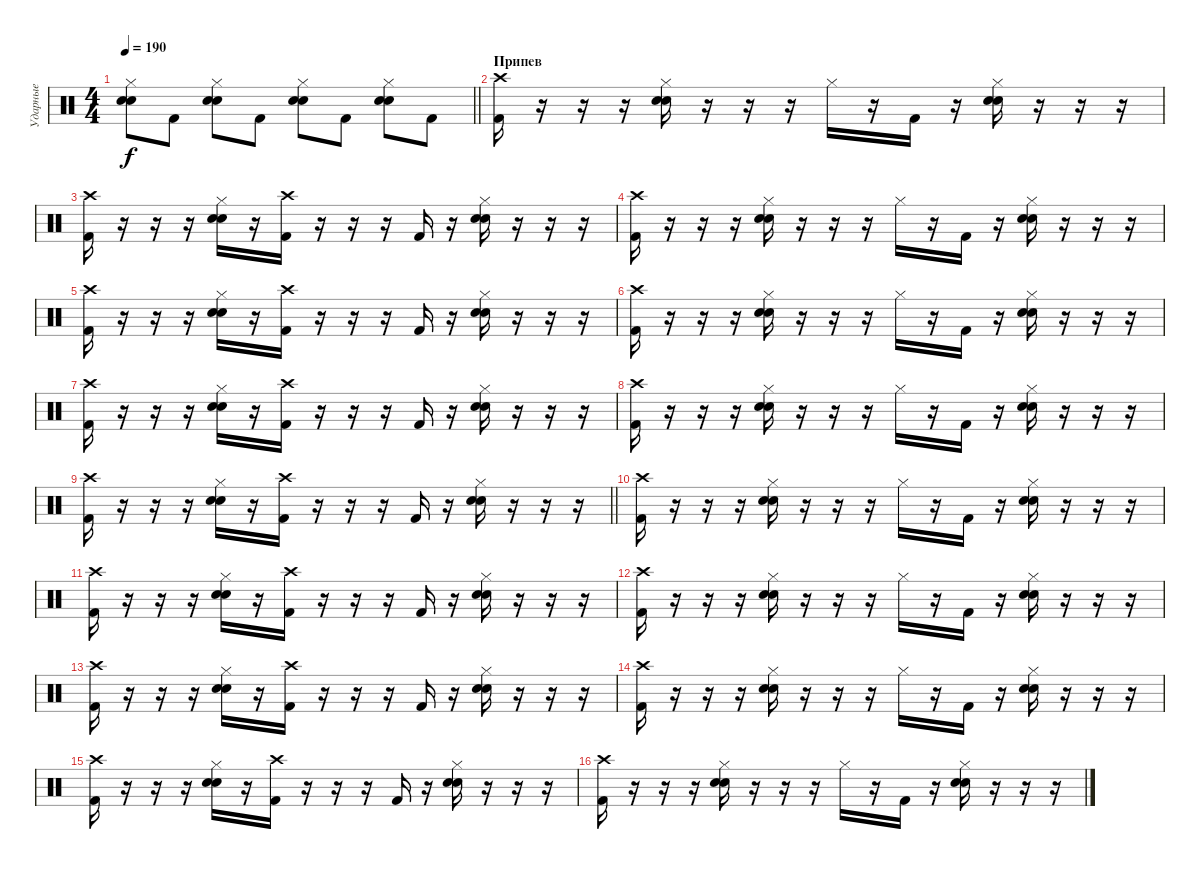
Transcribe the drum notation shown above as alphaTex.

\track ("Ударные" "Ударные") {instrument percussion}
\staff {score}
\articulation defaults
\ts (4 4)
\tempo 190
\clef neutral
\barLineRight lightlight
\ks c
("Snare (hit) 2" "Electric Snare (hit)" "Hi-Hat (closed)").8{dy f} "Kick (hit) 2".8 ("Snare (hit) 2" "Electric Snare (hit)" "Hi-Hat (closed)").8 "Kick (hit) 2".8 ("Snare (hit) 2" "Electric Snare (hit)" "Hi-Hat (closed)").8 "Kick (hit) 2".8 ("Snare (hit) 2" "Electric Snare (hit)" "Hi-Hat (closed)").8 "Kick (hit) 2".8 |
\section ("" "Припев")
("Kick (hit) 2" "Crash high (hit)").16 r.16 r.16 r.16 ("Snare (hit) 2" "Electric Snare (hit)" "Hi-Hat (closed)").16 r.16 r.16 r.16 "Hi-Hat (closed)".16 r.16 "Kick (hit) 2".16 r.16 ("Snare (hit) 2" "Electric Snare (hit)" "Hi-Hat (closed)").16 r.16 r.16 r.16 |
("Kick (hit) 2" "Crash high (hit)").16 r.16 r.16 r.16 ("Snare (hit) 2" "Electric Snare (hit)" "Hi-Hat (closed)").16 r.16 ("Kick (hit) 2" "Crash high (hit)").16 r.16 r.16 r.16 "Kick (hit) 2".16 r.16 ("Snare (hit) 2" "Electric Snare (hit)" "Hi-Hat (closed)").16 r.16 r.16 r.16 |
("Kick (hit) 2" "Crash high (hit)").16 r.16 r.16 r.16 ("Snare (hit) 2" "Electric Snare (hit)" "Hi-Hat (closed)").16 r.16 r.16 r.16 "Hi-Hat (closed)".16 r.16 "Kick (hit) 2".16 r.16 ("Snare (hit) 2" "Electric Snare (hit)" "Hi-Hat (closed)").16 r.16 r.16 r.16 |
("Kick (hit) 2" "Crash high (hit)").16 r.16 r.16 r.16 ("Snare (hit) 2" "Electric Snare (hit)" "Hi-Hat (closed)").16 r.16 ("Kick (hit) 2" "Crash high (hit)").16 r.16 r.16 r.16 "Kick (hit) 2".16 r.16 ("Snare (hit) 2" "Electric Snare (hit)" "Hi-Hat (closed)").16 r.16 r.16 r.16 |
("Kick (hit) 2" "Crash high (hit)").16 r.16 r.16 r.16 ("Snare (hit) 2" "Electric Snare (hit)" "Hi-Hat (closed)").16 r.16 r.16 r.16 "Hi-Hat (closed)".16 r.16 "Kick (hit) 2".16 r.16 ("Snare (hit) 2" "Electric Snare (hit)" "Hi-Hat (closed)").16 r.16 r.16 r.16 |
("Kick (hit) 2" "Crash high (hit)").16 r.16 r.16 r.16 ("Snare (hit) 2" "Electric Snare (hit)" "Hi-Hat (closed)").16 r.16 ("Kick (hit) 2" "Crash high (hit)").16 r.16 r.16 r.16 "Kick (hit) 2".16 r.16 ("Snare (hit) 2" "Electric Snare (hit)" "Hi-Hat (closed)").16 r.16 r.16 r.16 |
("Kick (hit) 2" "Crash high (hit)").16 r.16 r.16 r.16 ("Snare (hit) 2" "Electric Snare (hit)" "Hi-Hat (closed)").16 r.16 r.16 r.16 "Hi-Hat (closed)".16 r.16 "Kick (hit) 2".16 r.16 ("Snare (hit) 2" "Electric Snare (hit)" "Hi-Hat (closed)").16 r.16 r.16 r.16 |
\barLineRight lightlight
("Kick (hit) 2" "Crash high (hit)").16 r.16 r.16 r.16 ("Snare (hit) 2" "Electric Snare (hit)" "Hi-Hat (closed)").16 r.16 ("Kick (hit) 2" "Crash high (hit)").16 r.16 r.16 r.16 "Kick (hit) 2".16 r.16 ("Snare (hit) 2" "Electric Snare (hit)" "Hi-Hat (closed)").16 r.16 r.16 r.16 |
("Kick (hit) 2" "Crash high (hit)").16 r.16 r.16 r.16 ("Snare (hit) 2" "Electric Snare (hit)" "Hi-Hat (closed)").16 r.16 r.16 r.16 "Hi-Hat (closed)".16 r.16 "Kick (hit) 2".16 r.16 ("Snare (hit) 2" "Electric Snare (hit)" "Hi-Hat (closed)").16 r.16 r.16 r.16 |
("Kick (hit) 2" "Crash high (hit)").16 r.16 r.16 r.16 ("Snare (hit) 2" "Electric Snare (hit)" "Hi-Hat (closed)").16 r.16 ("Kick (hit) 2" "Crash high (hit)").16 r.16 r.16 r.16 "Kick (hit) 2".16 r.16 ("Snare (hit) 2" "Electric Snare (hit)" "Hi-Hat (closed)").16 r.16 r.16 r.16 |
("Kick (hit) 2" "Crash high (hit)").16 r.16 r.16 r.16 ("Snare (hit) 2" "Electric Snare (hit)" "Hi-Hat (closed)").16 r.16 r.16 r.16 "Hi-Hat (closed)".16 r.16 "Kick (hit) 2".16 r.16 ("Snare (hit) 2" "Electric Snare (hit)" "Hi-Hat (closed)").16 r.16 r.16 r.16 |
("Kick (hit) 2" "Crash high (hit)").16 r.16 r.16 r.16 ("Snare (hit) 2" "Electric Snare (hit)" "Hi-Hat (closed)").16 r.16 ("Kick (hit) 2" "Crash high (hit)").16 r.16 r.16 r.16 "Kick (hit) 2".16 r.16 ("Snare (hit) 2" "Electric Snare (hit)" "Hi-Hat (closed)").16 r.16 r.16 r.16 |
("Kick (hit) 2" "Crash high (hit)").16 r.16 r.16 r.16 ("Snare (hit) 2" "Electric Snare (hit)" "Hi-Hat (closed)").16 r.16 r.16 r.16 "Hi-Hat (closed)".16 r.16 "Kick (hit) 2".16 r.16 ("Snare (hit) 2" "Electric Snare (hit)" "Hi-Hat (closed)").16 r.16 r.16 r.16 |
("Kick (hit) 2" "Crash high (hit)").16 r.16 r.16 r.16 ("Snare (hit) 2" "Electric Snare (hit)" "Hi-Hat (closed)").16 r.16 ("Kick (hit) 2" "Crash high (hit)").16 r.16 r.16 r.16 "Kick (hit) 2".16 r.16 ("Snare (hit) 2" "Electric Snare (hit)" "Hi-Hat (closed)").16 r.16 r.16 r.16 |
("Kick (hit) 2" "Crash high (hit)").16 r.16 r.16 r.16 ("Snare (hit) 2" "Electric Snare (hit)" "Hi-Hat (closed)").16 r.16 r.16 r.16 "Hi-Hat (closed)".16 r.16 "Kick (hit) 2".16 r.16 ("Snare (hit) 2" "Electric Snare (hit)" "Hi-Hat (closed)").16 r.16 r.16 r.16
